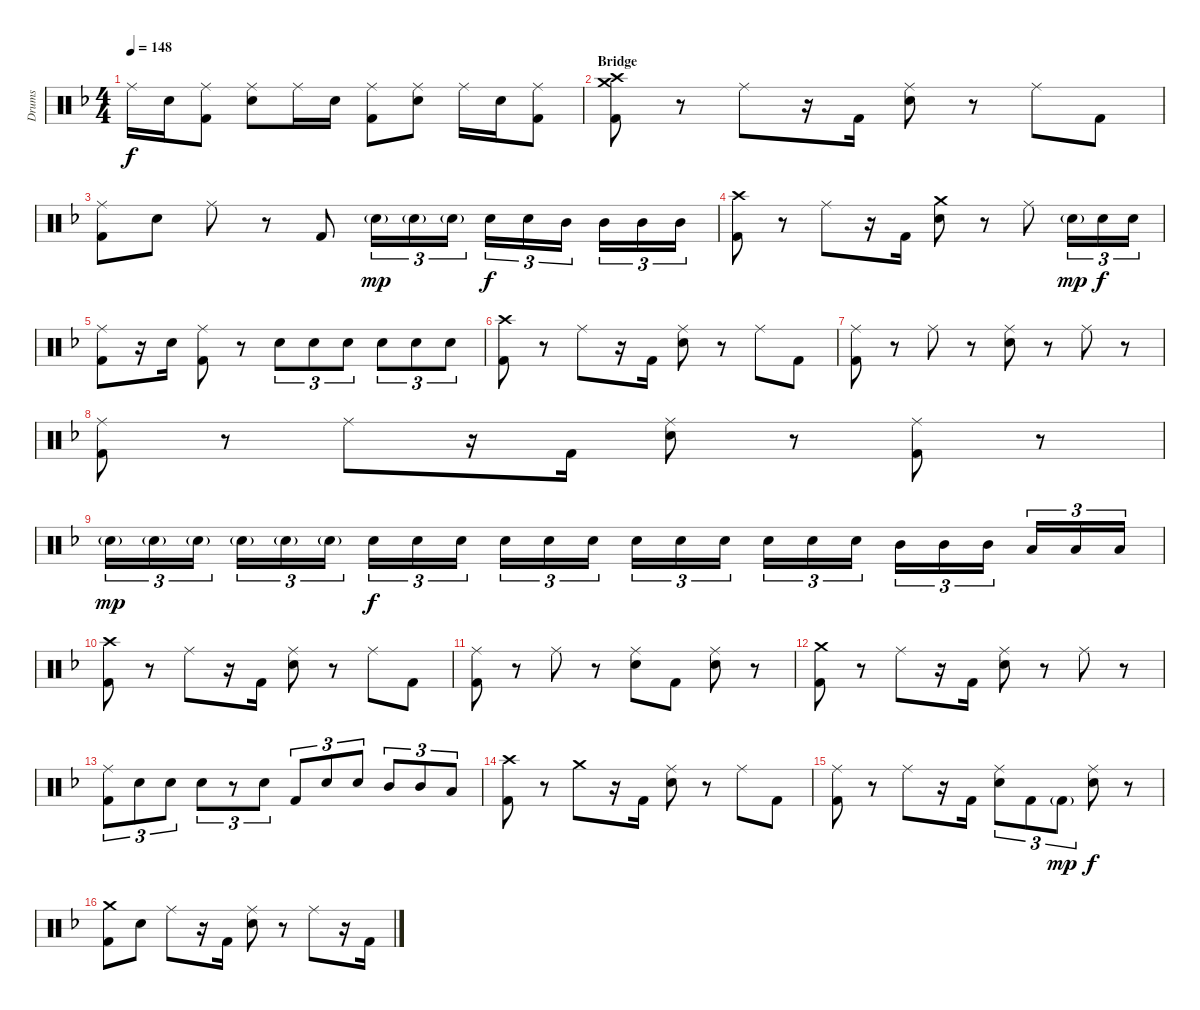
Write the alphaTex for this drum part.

\track ("Drums" "Drums") {instrument percussion}
\staff {score}
\articulation defaults
\ts (4 4)
\tempo 148
\clef neutral
\ks dminor "Ride (middle)".16{dy f} "Snare (hit) 2".16
("Ride (middle)" "Kick (hit) 2").8 ("Ride (middle)" "Snare (hit) 2").8 "Ride (middle)".16 "Snare (hit) 2".16 ("Ride (middle)" "Kick (hit) 2").8 ("Ride (middle)" "Snare (hit) 2").8 "Ride (middle)".16 "Snare (hit) 2".16 ("Ride (middle)" "Kick (hit) 2").8 |
\section ("" "Bridge")
("Crash high (hit)" "Crash medium (hit)" "Kick (hit) 2").8 r.8 "Ride (middle)".8 r.16 "Kick (hit) 2".16 ("Ride (middle)" "Snare (hit) 2").8 r.8 "Ride (middle)".8 "Kick (hit) 2".8 |
("Ride (middle)" "Kick (hit) 2").8 "Snare (hit) 2".8 "Ride (middle)".8 r.8 "Kick (hit) 2".8 "Snare (hit) 2"{g}.16{tu (3 2) dy mp} "Snare (hit) 2"{g}.16{tu (3 2)} "Snare (hit) 2"{g}.16{tu (3 2)} "Snare (hit) 2".16{tu (3 2) dy f} "Snare (hit) 2".16{tu (3 2)} "Mid Tom (hit)".16{tu (3 2)} "Mid Tom (hit)".16{tu (3 2)} "Mid Tom (hit)".16{tu (3 2)} "Mid Tom (hit)".16{tu (3 2)} |
("Crash high (hit)" "Kick (hit) 2").8 r.8 "Ride (middle)".8 r.16 "Kick (hit) 2".16 ("Crash medium (hit)" "Snare (hit) 2").8 r.8 "Ride (middle)".8 "Snare (hit) 2"{g}.16{tu (3 2) dy mp} "Snare (hit) 2".16{tu (3 2) dy f} "Snare (hit) 2".16{tu (3 2)} |
("Ride (middle)" "Kick (hit) 2").8 r.16 "Snare (hit) 2".16 ("Ride (middle)" "Kick (hit) 2").8 r.8 "Snare (hit) 2".8{tu (3 2)} "Snare (hit) 2".8{tu (3 2)} "Snare (hit) 2".8{tu (3 2)} "Snare (hit) 2".8{tu (3 2)} "Snare (hit) 2".8{tu (3 2)} "Snare (hit) 2".8{tu (3 2)} |
("Crash high (hit)" "Kick (hit) 2").8 r.8 "Ride (middle)".8 r.16 "Kick (hit) 2".16 ("Ride (middle)" "Snare (hit) 2").8 r.8 "Ride (middle)".8 "Kick (hit) 2".8 |
("Ride (middle)" "Kick (hit) 2").8 r.8 "Ride (middle)".8 r.8 ("Ride (middle)" "Snare (hit) 2").8 r.8 "Ride (middle)".8 r.8 |
("Ride (middle)" "Kick (hit) 2").8 r.8 "Ride (middle)".8 r.16 "Kick (hit) 2".16 ("Ride (middle)" "Snare (hit) 2").8 r.8 ("Ride (middle)" "Kick (hit) 2").8 r.8 |
"Snare (hit) 2"{g}.16{tu (3 2) dy mp} "Snare (hit) 2"{g}.16{tu (3 2)} "Snare (hit) 2"{g}.16{tu (3 2)} "Snare (hit) 2"{g}.16{tu (3 2)} "Snare (hit) 2"{g}.16{tu (3 2)} "Snare (hit) 2"{g}.16{tu (3 2)} "Snare (hit) 2".16{tu (3 2) dy f} "Snare (hit) 2".16{tu (3 2)} "Snare (hit) 2".16{tu (3 2)} "Snare (hit) 2".16{tu (3 2)} "Snare (hit) 2".16{tu (3 2)} "Snare (hit) 2".16{tu (3 2)} "Snare (hit) 2".16{tu (3 2)} "Snare (hit) 2".16{tu (3 2)} "Snare (hit) 2".16{tu (3 2)} "Snare (hit) 2".16{tu (3 2)} "Snare (hit) 2".16{tu (3 2)} "Snare (hit) 2".16{tu (3 2)} "Mid Tom (hit)".16{tu (3 2)} "Mid Tom (hit)".16{tu (3 2)} "Mid Tom (hit)".16{tu (3 2)} "Low Tom (hit)".16{tu (3 2)} "Low Tom (hit)".16{tu (3 2)} "Low Tom (hit)".16{tu (3 2)} |
("Crash high (hit)" "Kick (hit) 2").8 r.8 "Ride (middle)".8 r.16 "Kick (hit) 2".16 ("Ride (middle)" "Snare (hit) 2").8 r.8 "Ride (middle)".8 "Kick (hit) 2".8 |
("Ride (middle)" "Kick (hit) 2").8 r.8 "Ride (middle)".8 r.8 ("Ride (middle)" "Snare (hit) 2").8 "Kick (hit) 2".8 ("Ride (middle)" "Snare (hit) 2").8 r.8 |
("Crash medium (hit)" "Kick (hit) 2").8 r.8 "Ride (middle)".8 r.16 "Kick (hit) 2".16 ("Ride (middle)" "Snare (hit) 2").8 r.8 "Ride (middle)".8 r.8 |
("Ride (middle)" "Kick (hit) 2").8{tu (3 2)} "Snare (hit) 2".8{tu (3 2)} "Snare (hit) 2".8{tu (3 2)} "Snare (hit) 2".8{tu (3 2)} r.8{tu (3 2)} "Snare (hit) 2".8{tu (3 2)} "Kick (hit) 2".8{tu (3 2)} "Snare (hit) 2".8{tu (3 2)} "Snare (hit) 2".8{tu (3 2)} "Mid Tom (hit)".8{tu (3 2)} "Mid Tom (hit)".8{tu (3 2)} "Low Tom (hit)".8{tu (3 2)} |
("Crash high (hit)" "Kick (hit) 2").8 r.8 "Crash medium (hit)".8 r.16 "Kick (hit) 2".16 ("Ride (middle)" "Snare (hit) 2").8 r.8 "Ride (middle)".8 "Kick (hit) 2".8 |
("Ride (middle)" "Kick (hit) 2").8 r.8 "Ride (middle)".8 r.16 "Kick (hit) 2".16 ("Ride (middle)" "Snare (hit) 2").8{tu (3 2)} "Kick (hit) 2".8{tu (3 2)} "Kick (hit) 2"{g}.8{tu (3 2) dy mp} ("Ride (middle)" "Snare (hit) 2").8{dy f} r.8 |
("Crash medium (hit)" "Kick (hit) 2").8 "Snare (hit) 2".8 "Ride (middle)".8 r.16 "Kick (hit) 2".16 ("Ride (middle)" "Snare (hit) 2").8 r.8 "Ride (middle)".8 r.16 "Kick (hit) 2".16
